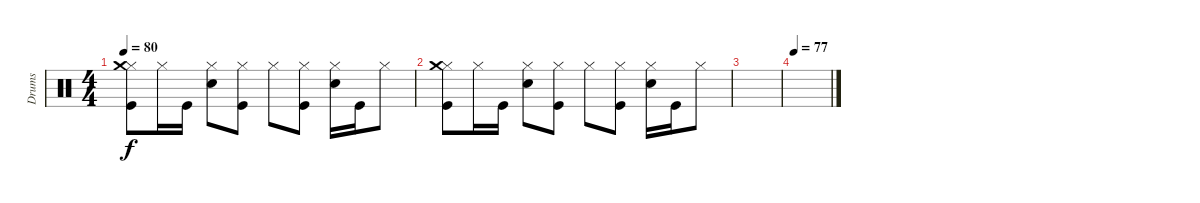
\track ("Drums" "Drums") {instrument percussion}
\staff {score}
\articulation defaults
\ts (4 4)
\tempo 80
\clef neutral
\ks c
("Hi-Hat (closed)" "Kick (hit)" "Crash medium (hit)").8{dy f} "Hi-Hat (closed)".16 "Kick (hit)".16 ("Hi-Hat (closed)" "Snare (hit) 2").8 ("Hi-Hat (closed)" "Kick (hit)").8 "Hi-Hat (closed)".8 ("Hi-Hat (closed)" "Kick (hit)").8 ("Hi-Hat (closed)" "Snare (hit) 2").16 "Kick (hit)".16 "Hi-Hat (closed)".8 |
("Hi-Hat (closed)" "Kick (hit)" "Crash medium (hit)").8 "Hi-Hat (closed)".16 "Kick (hit)".16 ("Hi-Hat (closed)" "Snare (hit) 2").8 ("Hi-Hat (closed)" "Kick (hit)").8 "Hi-Hat (closed)".8 ("Hi-Hat (closed)" "Kick (hit)").8 ("Hi-Hat (closed)" "Snare (hit) 2").16 "Kick (hit)".16 "Hi-Hat (closed)".8 |
|
\tempo 77
